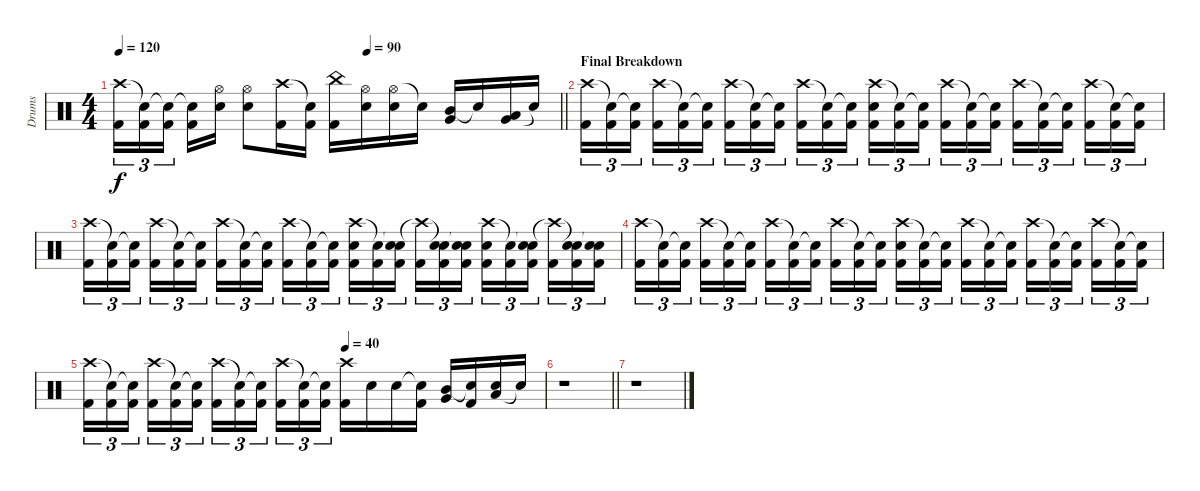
\track ("Drums" "Drums") {instrument percussion}
\staff {score}
\articulation defaults
\ts (4 4)
\tempo 120
\tempo (90 0.5625)
\clef neutral
\barLineRight lightlight
\ks c
("Crash high (hit)" "Kick (hit) 2").16{tu (3 2) dy f} ("Snare (hit)"{t} "Kick (hit) 2").16{tu (3 2)} ("Snare (hit)"{t} "Kick (hit) 2").16{tu (3 2) beam splitsecondary} ("Snare (hit)"{t} "Kick (hit) 2").16 ("Hi-Hat (open)" "Electric Snare (hit)").16 ("Hi-Hat (open)" "Electric Snare (hit)").8 ("Crash high (hit)" "Kick (hit) 2").16 ("Snare (hit)"{t} "Kick (hit) 2").16 ("China (hit)" "Kick (hit) 2").16 ("Hi-Hat (open)" "Electric Snare (hit)").16 ("Hi-Hat (open)" "Electric Snare (hit)").16 "Snare (hit)"{t}.16 ("Mid Tom (hit)" "Very Low Tom (hit)").16 "Snare (hit)"{t}.16 ("Very Low Tom (hit)" "Low Floor Tom (hit)").16 "Snare (hit)"{t}.16 |
\section ("" "Final Breakdown")
("Crash high (hit)" "Kick (hit) 2").16{tu (3 2)} ("Snare (hit)"{t} "Kick (hit) 2").16{tu (3 2)} ("Snare (hit)"{t} "Kick (hit) 2").16{tu (3 2) beam splitsecondary} ("Crash high (hit)" "Kick (hit) 2").16{tu (3 2)} ("Snare (hit)"{t} "Kick (hit) 2").16{tu (3 2)} ("Snare (hit)"{t} "Kick (hit) 2").16{tu (3 2)} ("Crash high (hit)" "Kick (hit) 2").16{tu (3 2)} ("Snare (hit)"{t} "Kick (hit) 2").16{tu (3 2)} ("Snare (hit)"{t} "Kick (hit) 2").16{tu (3 2) beam splitsecondary} ("Crash high (hit)" "Kick (hit) 2").16{tu (3 2)} ("Snare (hit)"{t} "Kick (hit) 2").16{tu (3 2)} ("Snare (hit)"{t} "Kick (hit) 2").16{tu (3 2)} ("Crash high (hit)" "Electric Snare (hit)" "Kick (hit) 2").16{tu (3 2)} ("Snare (hit)"{t} "Kick (hit) 2").16{tu (3 2)} ("Snare (hit)"{t} "Kick (hit) 2").16{tu (3 2) beam splitsecondary} ("Crash high (hit)" "Kick (hit) 2").16{tu (3 2)} ("Snare (hit)"{t} "Kick (hit) 2").16{tu (3 2)} ("Snare (hit)"{t} "Kick (hit) 2").16{tu (3 2)} ("Crash high (hit)" "Kick (hit) 2").16{tu (3 2)} ("Snare (hit)"{t} "Kick (hit) 2").16{tu (3 2)} ("Snare (hit)"{t} "Kick (hit) 2").16{tu (3 2) beam splitsecondary} ("Crash high (hit)" "Kick (hit) 2").16{tu (3 2)} ("Snare (hit)"{t} "Kick (hit) 2").16{tu (3 2)} ("Snare (hit)"{t} "Kick (hit) 2").16{tu (3 2)} |
("Crash high (hit)" "Kick (hit) 2").16{tu (3 2)} ("Snare (hit)"{t} "Kick (hit) 2").16{tu (3 2)} ("Snare (hit)"{t} "Kick (hit) 2").16{tu (3 2) beam splitsecondary} ("Crash high (hit)" "Kick (hit) 2").16{tu (3 2)} ("Snare (hit)"{t} "Kick (hit) 2").16{tu (3 2)} ("Snare (hit)"{t} "Kick (hit) 2").16{tu (3 2)} ("Crash high (hit)" "Kick (hit) 2").16{tu (3 2)} ("Snare (hit)"{t} "Kick (hit) 2").16{tu (3 2)} ("Snare (hit)"{t} "Kick (hit) 2").16{tu (3 2) beam splitsecondary} ("Crash high (hit)" "Kick (hit) 2").16{tu (3 2)} ("Snare (hit)"{t} "Kick (hit) 2").16{tu (3 2)} ("Snare (hit)"{t} "Kick (hit) 2").16{tu (3 2)} ("Crash high (hit)" "Electric Snare (hit)" "Kick (hit) 2").16{tu (3 2)} ("Snare (hit)"{t} "Kick (hit) 2").16{tu (3 2)} ("Snare (hit)"{t} "Electric Snare (hit)" "Kick (hit) 2").16{tu (3 2) beam splitsecondary} ("Crash high (hit)"{t} "Kick (hit) 2").16{tu (3 2)} ("Snare (hit)"{t} "Electric Snare (hit)" "Kick (hit) 2").16{tu (3 2)} ("Snare (hit)"{t} "Electric Snare (hit)" "Kick (hit) 2").16{tu (3 2)} ("Crash high (hit)" "Electric Snare (hit)" "Kick (hit) 2").16{tu (3 2)} ("Snare (hit)"{t} "Kick (hit) 2").16{tu (3 2)} ("Snare (hit)"{t} "Electric Snare (hit)" "Kick (hit) 2").16{tu (3 2) beam splitsecondary} ("Crash high (hit)"{t} "Kick (hit) 2").16{tu (3 2)} ("Snare (hit)"{t} "Electric Snare (hit)" "Kick (hit) 2").16{tu (3 2)} ("Snare (hit)"{t} "Electric Snare (hit)" "Kick (hit) 2").16{tu (3 2)} |
("Crash high (hit)" "Kick (hit) 2").16{tu (3 2)} ("Snare (hit)"{t} "Kick (hit) 2").16{tu (3 2)} ("Snare (hit)"{t} "Kick (hit) 2").16{tu (3 2) beam splitsecondary} ("Crash high (hit)" "Kick (hit) 2").16{tu (3 2)} ("Snare (hit)"{t} "Kick (hit) 2").16{tu (3 2)} ("Snare (hit)"{t} "Kick (hit) 2").16{tu (3 2)} ("Crash high (hit)" "Kick (hit) 2").16{tu (3 2)} ("Snare (hit)"{t} "Kick (hit) 2").16{tu (3 2)} ("Snare (hit)"{t} "Kick (hit) 2").16{tu (3 2) beam splitsecondary} ("Crash high (hit)" "Kick (hit) 2").16{tu (3 2)} ("Snare (hit)"{t} "Kick (hit) 2").16{tu (3 2)} ("Snare (hit)"{t} "Kick (hit) 2").16{tu (3 2)} ("Crash high (hit)" "Electric Snare (hit)" "Kick (hit) 2").16{tu (3 2)} ("Snare (hit)"{t} "Kick (hit) 2").16{tu (3 2)} ("Snare (hit)"{t} "Kick (hit) 2").16{tu (3 2) beam splitsecondary} ("Crash high (hit)" "Kick (hit) 2").16{tu (3 2)} ("Snare (hit)"{t} "Kick (hit) 2").16{tu (3 2)} ("Snare (hit)"{t} "Kick (hit) 2").16{tu (3 2)} ("Crash high (hit)" "Kick (hit) 2").16{tu (3 2)} ("Snare (hit)"{t} "Kick (hit) 2").16{tu (3 2)} ("Snare (hit)"{t} "Kick (hit) 2").16{tu (3 2) beam splitsecondary} ("Crash high (hit)" "Kick (hit) 2").16{tu (3 2)} ("Snare (hit)"{t} "Kick (hit) 2").16{tu (3 2)} ("Snare (hit)"{t} "Kick (hit) 2").16{tu (3 2)} |
\tempo (40 0.5625)
("Crash high (hit)" "Kick (hit) 2").16{tu (3 2)} ("Snare (hit)"{t} "Kick (hit) 2").16{tu (3 2)} ("Snare (hit)"{t} "Kick (hit) 2").16{tu (3 2) beam splitsecondary} ("Crash high (hit)" "Kick (hit) 2").16{tu (3 2)} ("Snare (hit)"{t} "Kick (hit) 2").16{tu (3 2)} ("Snare (hit)"{t} "Kick (hit) 2").16{tu (3 2)} ("Crash high (hit)" "Kick (hit) 2").16{tu (3 2)} ("Snare (hit)"{t} "Kick (hit) 2").16{tu (3 2)} ("Snare (hit)"{t} "Kick (hit) 2").16{tu (3 2) beam splitsecondary} ("Crash high (hit)" "Kick (hit) 2").16{tu (3 2)} ("Snare (hit)"{t} "Kick (hit) 2").16{tu (3 2)} ("Snare (hit)"{t} "Kick (hit) 2").16{tu (3 2)} ("Crash high (hit)" "Kick (hit) 2").16 "Electric Snare (hit)".16 "Electric Snare (hit)".16 ("Snare (hit)"{t} "Kick (hit) 2").16 ("Mid Tom (hit)" "Very Low Tom (hit)").16 ("Snare (hit)"{t} "Kick (hit) 2").16 ("Low Floor Tom (hit)" "Electric Snare (hit)").16 "Snare (hit)"{t}.16 |
\barLineRight lightlight
r.1 |
r.1
